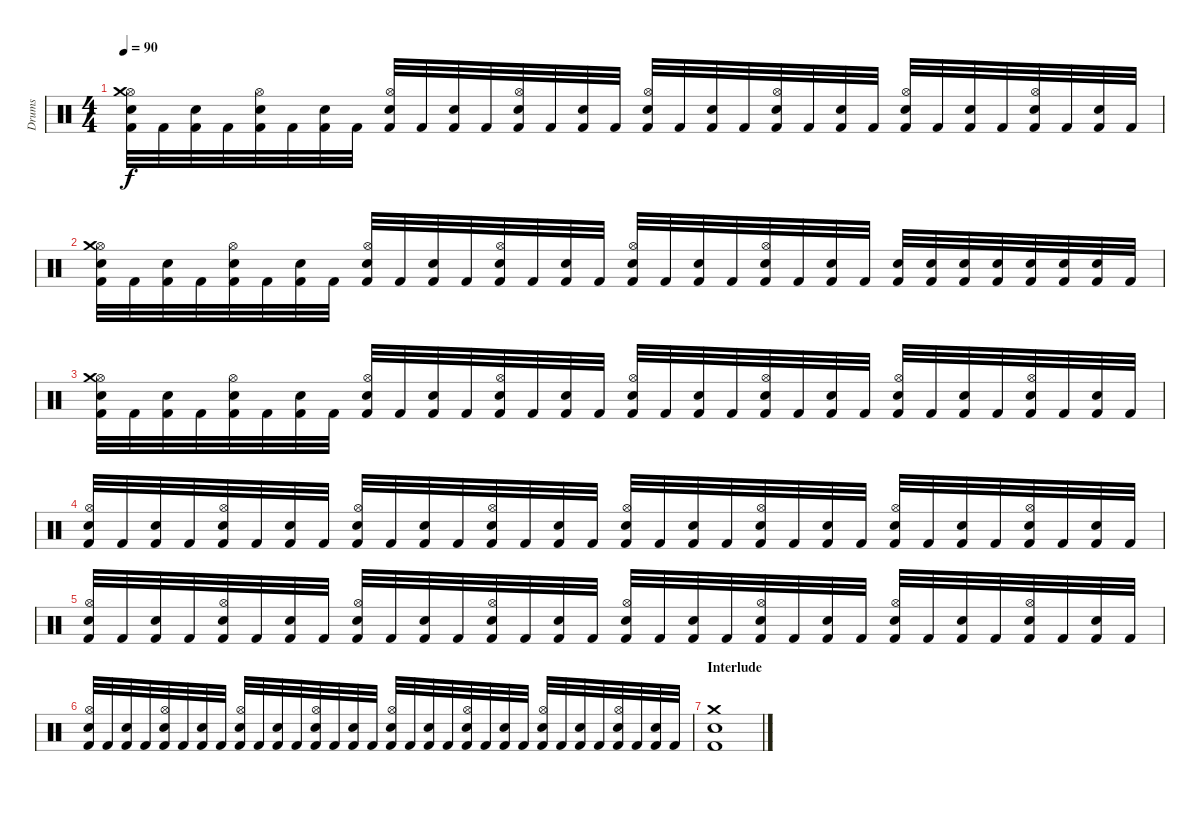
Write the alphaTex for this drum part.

\track ("Drums" "Drums") {instrument percussion}
\staff {score}
\articulation defaults
\ts (4 4)
\tempo 90
\clef neutral
\ks c
("Kick (hit) 2" "Hi-Hat (open)" "Snare (hit) 2" "Crash medium (hit)").32{dy f} "Kick (hit) 2".32 ("Kick (hit) 2" "Snare (hit) 2").32 "Kick (hit) 2".32 ("Kick (hit) 2" "Hi-Hat (open)" "Snare (hit) 2").32 "Kick (hit) 2".32 ("Kick (hit) 2" "Snare (hit) 2").32 "Kick (hit) 2".32 ("Kick (hit) 2" "Hi-Hat (open)" "Snare (hit) 2").32 "Kick (hit) 2".32 ("Kick (hit) 2" "Snare (hit) 2").32 "Kick (hit) 2".32 ("Kick (hit) 2" "Hi-Hat (open)" "Snare (hit) 2").32 "Kick (hit) 2".32 ("Kick (hit) 2" "Snare (hit) 2").32 "Kick (hit) 2".32 ("Kick (hit) 2" "Hi-Hat (open)" "Snare (hit) 2").32 "Kick (hit) 2".32 ("Kick (hit) 2" "Snare (hit) 2").32 "Kick (hit) 2".32 ("Kick (hit) 2" "Hi-Hat (open)" "Snare (hit) 2").32 "Kick (hit) 2".32 ("Kick (hit) 2" "Snare (hit) 2").32 "Kick (hit) 2".32 ("Kick (hit) 2" "Hi-Hat (open)" "Snare (hit) 2").32 "Kick (hit) 2".32 ("Kick (hit) 2" "Snare (hit) 2").32 "Kick (hit) 2".32 ("Kick (hit) 2" "Hi-Hat (open)" "Snare (hit) 2").32 "Kick (hit) 2".32 ("Kick (hit) 2" "Snare (hit) 2").32 "Kick (hit) 2".32 |
("Kick (hit) 2" "Hi-Hat (open)" "Snare (hit) 2" "Crash medium (hit)").32 "Kick (hit) 2".32 ("Kick (hit) 2" "Snare (hit) 2").32 "Kick (hit) 2".32 ("Kick (hit) 2" "Hi-Hat (open)" "Snare (hit) 2").32 "Kick (hit) 2".32 ("Kick (hit) 2" "Snare (hit) 2").32 "Kick (hit) 2".32 ("Kick (hit) 2" "Hi-Hat (open)" "Snare (hit) 2").32 "Kick (hit) 2".32 ("Kick (hit) 2" "Snare (hit) 2").32 "Kick (hit) 2".32 ("Kick (hit) 2" "Hi-Hat (open)" "Snare (hit) 2").32 "Kick (hit) 2".32 ("Kick (hit) 2" "Snare (hit) 2").32 "Kick (hit) 2".32 ("Kick (hit) 2" "Hi-Hat (open)" "Snare (hit) 2").32 "Kick (hit) 2".32 ("Kick (hit) 2" "Snare (hit) 2").32 "Kick (hit) 2".32 ("Kick (hit) 2" "Hi-Hat (open)" "Snare (hit) 2").32 "Kick (hit) 2".32 ("Kick (hit) 2" "Snare (hit) 2").32 "Kick (hit) 2".32 ("Kick (hit) 2" "Snare (hit) 2").32 ("Kick (hit) 2" "Snare (hit) 2").32 ("Kick (hit) 2" "Snare (hit) 2").32 ("Kick (hit) 2" "Snare (hit) 2").32 ("Kick (hit) 2" "Snare (hit) 2").32 ("Kick (hit) 2" "Snare (hit) 2").32 ("Kick (hit) 2" "Snare (hit) 2").32 "Kick (hit) 2".32 |
\section ("" "")
("Kick (hit) 2" "Hi-Hat (open)" "Snare (hit) 2" "Crash medium (hit)").32 "Kick (hit) 2".32 ("Kick (hit) 2" "Snare (hit) 2").32 "Kick (hit) 2".32 ("Kick (hit) 2" "Hi-Hat (open)" "Snare (hit) 2").32 "Kick (hit) 2".32 ("Kick (hit) 2" "Snare (hit) 2").32 "Kick (hit) 2".32 ("Kick (hit) 2" "Hi-Hat (open)" "Snare (hit) 2").32 "Kick (hit) 2".32 ("Kick (hit) 2" "Snare (hit) 2").32 "Kick (hit) 2".32 ("Kick (hit) 2" "Hi-Hat (open)" "Snare (hit) 2").32 "Kick (hit) 2".32 ("Kick (hit) 2" "Snare (hit) 2").32 "Kick (hit) 2".32 ("Kick (hit) 2" "Hi-Hat (open)" "Snare (hit) 2").32 "Kick (hit) 2".32 ("Kick (hit) 2" "Snare (hit) 2").32 "Kick (hit) 2".32 ("Kick (hit) 2" "Hi-Hat (open)" "Snare (hit) 2").32 "Kick (hit) 2".32 ("Kick (hit) 2" "Snare (hit) 2").32 "Kick (hit) 2".32 ("Kick (hit) 2" "Hi-Hat (open)" "Snare (hit) 2").32 "Kick (hit) 2".32 ("Kick (hit) 2" "Snare (hit) 2").32 "Kick (hit) 2".32 ("Kick (hit) 2" "Hi-Hat (open)" "Snare (hit) 2").32 "Kick (hit) 2".32 ("Kick (hit) 2" "Snare (hit) 2").32 "Kick (hit) 2".32 |
("Kick (hit) 2" "Hi-Hat (open)" "Snare (hit) 2").32 "Kick (hit) 2".32 ("Kick (hit) 2" "Snare (hit) 2").32 "Kick (hit) 2".32 ("Kick (hit) 2" "Hi-Hat (open)" "Snare (hit) 2").32 "Kick (hit) 2".32 ("Kick (hit) 2" "Snare (hit) 2").32 "Kick (hit) 2".32 ("Kick (hit) 2" "Hi-Hat (open)" "Snare (hit) 2").32 "Kick (hit) 2".32 ("Kick (hit) 2" "Snare (hit) 2").32 "Kick (hit) 2".32 ("Kick (hit) 2" "Hi-Hat (open)" "Snare (hit) 2").32 "Kick (hit) 2".32 ("Kick (hit) 2" "Snare (hit) 2").32 "Kick (hit) 2".32 ("Kick (hit) 2" "Hi-Hat (open)" "Snare (hit) 2").32 "Kick (hit) 2".32 ("Kick (hit) 2" "Snare (hit) 2").32 "Kick (hit) 2".32 ("Kick (hit) 2" "Hi-Hat (open)" "Snare (hit) 2").32 "Kick (hit) 2".32 ("Kick (hit) 2" "Snare (hit) 2").32 "Kick (hit) 2".32 ("Kick (hit) 2" "Hi-Hat (open)" "Snare (hit) 2").32 "Kick (hit) 2".32 ("Kick (hit) 2" "Snare (hit) 2").32 "Kick (hit) 2".32 ("Kick (hit) 2" "Hi-Hat (open)" "Snare (hit) 2").32 "Kick (hit) 2".32 ("Kick (hit) 2" "Snare (hit) 2").32 "Kick (hit) 2".32 |
("Kick (hit) 2" "Hi-Hat (open)" "Snare (hit) 2").32 "Kick (hit) 2".32 ("Kick (hit) 2" "Snare (hit) 2").32 "Kick (hit) 2".32 ("Kick (hit) 2" "Hi-Hat (open)" "Snare (hit) 2").32 "Kick (hit) 2".32 ("Kick (hit) 2" "Snare (hit) 2").32 "Kick (hit) 2".32 ("Kick (hit) 2" "Hi-Hat (open)" "Snare (hit) 2").32 "Kick (hit) 2".32 ("Kick (hit) 2" "Snare (hit) 2").32 "Kick (hit) 2".32 ("Kick (hit) 2" "Hi-Hat (open)" "Snare (hit) 2").32 "Kick (hit) 2".32 ("Kick (hit) 2" "Snare (hit) 2").32 "Kick (hit) 2".32 ("Kick (hit) 2" "Hi-Hat (open)" "Snare (hit) 2").32 "Kick (hit) 2".32 ("Kick (hit) 2" "Snare (hit) 2").32 "Kick (hit) 2".32 ("Kick (hit) 2" "Hi-Hat (open)" "Snare (hit) 2").32 "Kick (hit) 2".32 ("Kick (hit) 2" "Snare (hit) 2").32 "Kick (hit) 2".32 ("Kick (hit) 2" "Hi-Hat (open)" "Snare (hit) 2").32 "Kick (hit) 2".32 ("Kick (hit) 2" "Snare (hit) 2").32 "Kick (hit) 2".32 ("Kick (hit) 2" "Hi-Hat (open)" "Snare (hit) 2").32 "Kick (hit) 2".32 ("Kick (hit) 2" "Snare (hit) 2").32 "Kick (hit) 2".32 |
("Kick (hit) 2" "Hi-Hat (open)" "Snare (hit) 2").32 "Kick (hit) 2".32 ("Kick (hit) 2" "Snare (hit) 2").32 "Kick (hit) 2".32 ("Kick (hit) 2" "Hi-Hat (open)" "Snare (hit) 2").32 "Kick (hit) 2".32 ("Kick (hit) 2" "Snare (hit) 2").32 "Kick (hit) 2".32 ("Kick (hit) 2" "Hi-Hat (open)" "Snare (hit) 2").32 "Kick (hit) 2".32 ("Kick (hit) 2" "Snare (hit) 2").32 "Kick (hit) 2".32 ("Kick (hit) 2" "Hi-Hat (open)" "Snare (hit) 2").32 "Kick (hit) 2".32 ("Kick (hit) 2" "Snare (hit) 2").32 "Kick (hit) 2".32 ("Kick (hit) 2" "Hi-Hat (open)" "Snare (hit) 2").32 "Kick (hit) 2".32 ("Kick (hit) 2" "Snare (hit) 2").32 "Kick (hit) 2".32 ("Kick (hit) 2" "Hi-Hat (open)" "Snare (hit) 2").32 "Kick (hit) 2".32 ("Kick (hit) 2" "Snare (hit) 2").32 "Kick (hit) 2".32 ("Kick (hit) 2" "Hi-Hat (open)" "Snare (hit) 2").32 "Kick (hit) 2".32 ("Kick (hit) 2" "Snare (hit) 2").32 "Kick (hit) 2".32 ("Kick (hit) 2" "Hi-Hat (open)" "Snare (hit) 2").32 "Kick (hit) 2".32 ("Kick (hit) 2" "Snare (hit) 2").32 "Kick (hit) 2".32 |
\section ("" "Interlude")
("Kick (hit) 2" "Snare (hit) 2" "Crash medium (hit)").1{volume 0}
